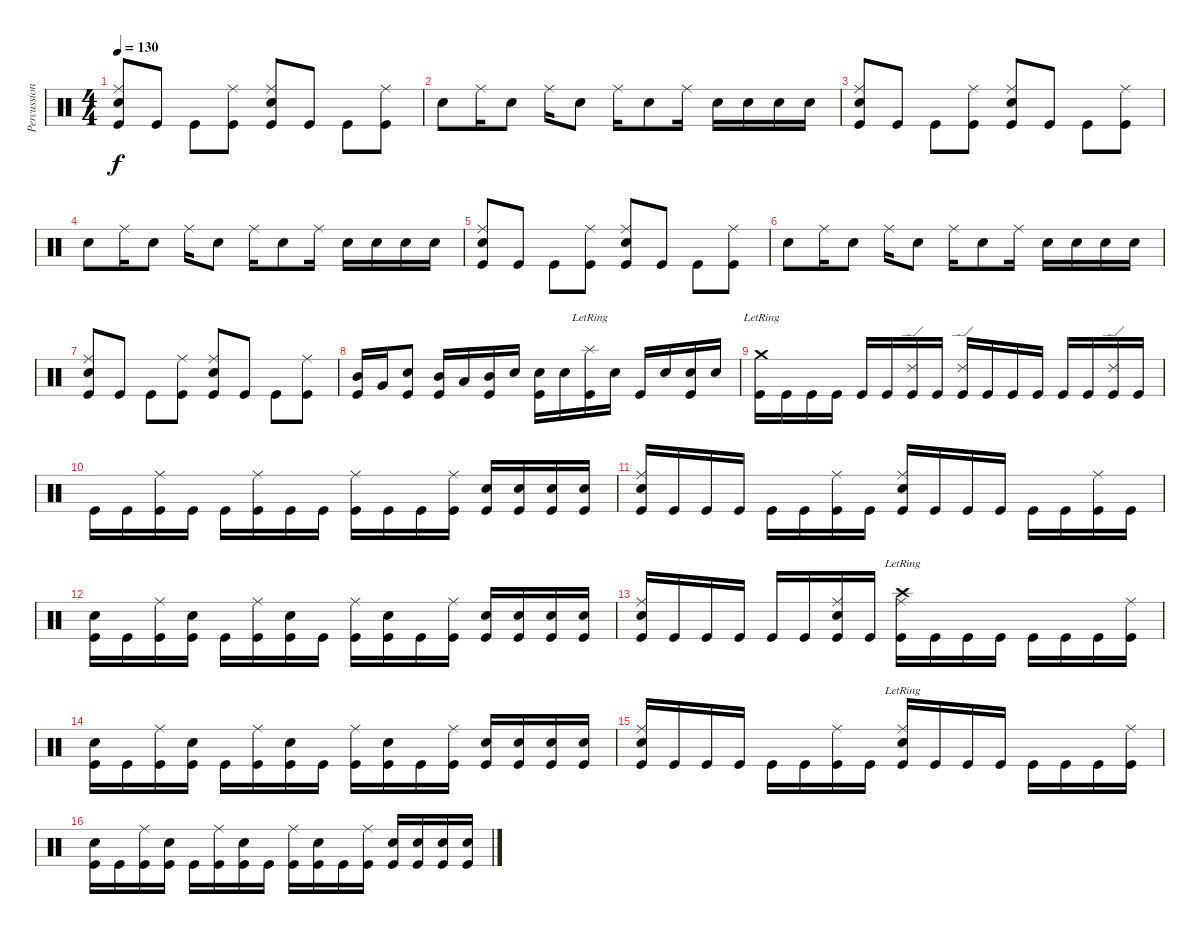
\track ("Percussions" "Percussion") {instrument percussion}
\staff {score}
\articulation defaults
\ts (4 4)
\tempo 130
\clef neutral
\ks c
("Kick (hit)" "Ride (middle)" "Electric Snare (hit)").8{dy f} "Kick (hit)".8 "Kick (hit)".8 ("Kick (hit)" "Ride (middle)").8 ("Kick (hit)" "Ride (middle)" "Electric Snare (hit)").8 "Kick (hit)".8 "Kick (hit)".8 ("Kick (hit)" "Ride (middle)").8 |
"Electric Snare (hit)".8 "Ride (middle)".16 "Electric Snare (hit)".8 "Ride (middle)".16 "Electric Snare (hit)".8 "Ride (middle)".16 "Electric Snare (hit)".8 "Ride (middle)".16 "Electric Snare (hit)".16 "Electric Snare (hit)".16 "Electric Snare (hit)".16 "Electric Snare (hit)".16 |
("Kick (hit)" "Ride (middle)" "Electric Snare (hit)").8 "Kick (hit)".8 "Kick (hit)".8 ("Kick (hit)" "Ride (middle)").8 ("Kick (hit)" "Ride (middle)" "Electric Snare (hit)").8 "Kick (hit)".8 "Kick (hit)".8 ("Kick (hit)" "Ride (middle)").8 |
"Electric Snare (hit)".8 "Ride (middle)".16 "Electric Snare (hit)".8 "Ride (middle)".16 "Electric Snare (hit)".8 "Ride (middle)".16 "Electric Snare (hit)".8 "Ride (middle)".16 "Electric Snare (hit)".16 "Electric Snare (hit)".16 "Electric Snare (hit)".16 "Electric Snare (hit)".16 |
("Kick (hit)" "Ride (middle)" "Electric Snare (hit)").8 "Kick (hit)".8 "Kick (hit)".8 ("Kick (hit)" "Ride (middle)").8 ("Kick (hit)" "Ride (middle)" "Electric Snare (hit)").8 "Kick (hit)".8 "Kick (hit)".8 ("Kick (hit)" "Ride (middle)").8 |
"Electric Snare (hit)".8 "Ride (middle)".16 "Electric Snare (hit)".8 "Ride (middle)".16 "Electric Snare (hit)".8 "Ride (middle)".16 "Electric Snare (hit)".8 "Ride (middle)".16 "Electric Snare (hit)".16 "Electric Snare (hit)".16 "Electric Snare (hit)".16 "Electric Snare (hit)".16 |
("Kick (hit)" "Ride (middle)" "Electric Snare (hit)").8 "Kick (hit)".8 "Kick (hit)".8 ("Kick (hit)" "Ride (middle)").8 ("Kick (hit)" "Ride (middle)" "Electric Snare (hit)").8 "Kick (hit)".8 "Kick (hit)".8 ("Kick (hit)" "Ride (middle)").8 |
("Kick (hit)" "Mid Tom (hit)").16 "Very Low Tom (hit)".16 ("Kick (hit)" "Electric Snare (hit)").8 ("Kick (hit)" "Mid Tom (hit)").16 "Low Tom (hit)".16 ("Kick (hit)" "Mid Tom (hit)").16 "Electric Snare (hit)".16 ("Kick (hit)" "Electric Snare (hit)").16 "Electric Snare (hit)".16 ("Kick (hit)" "Splash (hit)"{lr}).16 "Snare (hit) 2".16 "Kick (hit)".16 "Electric Snare (hit)".16 ("Kick (hit)" "Electric Snare (hit)").16 "Electric Snare (hit)".16 |
("Kick (hit)" "Crash medium (hit)"{lr}).16 "Kick (hit)".16 "Kick (hit)".16 "Kick (hit)".16 "Kick (hit)".16 "Kick (hit)".16 ("Kick (hit)" "Ride (edge) 2").16 "Kick (hit)".16 ("Kick (hit)" "Ride (edge) 2").16 "Kick (hit)".16 "Kick (hit)".16 "Kick (hit)".16 "Kick (hit)".16 "Kick (hit)".16 ("Kick (hit)" "Ride (edge) 2").16 "Kick (hit)".16 |
"Kick (hit)".16 "Kick (hit)".16 ("Kick (hit)" "Ride (middle)").16 "Kick (hit)".16 "Kick (hit)".16 ("Kick (hit)" "Ride (middle)").16 "Kick (hit)".16 "Kick (hit)".16 ("Kick (hit)" "Ride (middle)").16 "Kick (hit)".16 "Kick (hit)".16 ("Kick (hit)" "Ride (middle)").16 ("Kick (hit)" "Snare (hit) 2").16 ("Kick (hit)" "Snare (hit) 2").16 ("Kick (hit)" "Snare (hit) 2").16 ("Kick (hit)" "Snare (hit) 2").16 |
("Kick (hit)" "Ride (middle)" "Electric Snare (hit)").16 "Kick (hit)".16 "Kick (hit)".16 "Kick (hit)".16 "Kick (hit)".16 "Kick (hit)".16 ("Kick (hit)" "Ride (middle)").16 "Kick (hit)".16 ("Kick (hit)" "Ride (middle)" "Electric Snare (hit)").16 "Kick (hit)".16 "Kick (hit)".16 "Kick (hit)".16 "Kick (hit)".16 "Kick (hit)".16 ("Kick (hit)" "Ride (middle)").16 "Kick (hit)".16 |
("Electric Snare (hit)" "Kick (hit)").16 "Kick (hit)".16 ("Ride (middle)" "Kick (hit)").16 ("Electric Snare (hit)" "Kick (hit)").16 "Kick (hit)".16 ("Ride (middle)" "Kick (hit)").16 ("Electric Snare (hit)" "Kick (hit)").16 "Kick (hit)".16 ("Ride (middle)" "Kick (hit)").16 ("Electric Snare (hit)" "Kick (hit)").16 "Kick (hit)".16 ("Ride (middle)" "Kick (hit)").16 ("Electric Snare (hit)" "Kick (hit)").16 ("Electric Snare (hit)" "Kick (hit)").16 ("Electric Snare (hit)" "Kick (hit)").16 ("Electric Snare (hit)" "Kick (hit)").16 |
("Kick (hit)" "Ride (middle)" "Electric Snare (hit)").16 "Kick (hit)".16 "Kick (hit)".16 "Kick (hit)".16 "Kick (hit)".16 "Kick (hit)".16 ("Kick (hit)" "Ride (middle)" "Snare (hit) 2").16 "Kick (hit)".16 ("Kick (hit)" "Ride (middle)" "Crash high (hit)"{lr}).16 "Kick (hit)".16 "Kick (hit)".16 "Kick (hit)".16 "Kick (hit)".16 "Kick (hit)".16 "Kick (hit)".16 ("Kick (hit)" "Ride (middle)").16 |
("Electric Snare (hit)" "Kick (hit)").16 "Kick (hit)".16 ("Ride (middle)" "Kick (hit)").16 ("Electric Snare (hit)" "Kick (hit)").16 "Kick (hit)".16 ("Ride (middle)" "Kick (hit)").16 ("Electric Snare (hit)" "Kick (hit)").16 "Kick (hit)".16 ("Ride (middle)" "Kick (hit)").16 ("Electric Snare (hit)" "Kick (hit)").16 "Kick (hit)".16 ("Ride (middle)" "Kick (hit)").16 ("Snare (hit) 2" "Kick (hit)").16 ("Snare (hit) 2" "Kick (hit)").16 ("Snare (hit) 2" "Kick (hit)").16 ("Snare (hit) 2" "Kick (hit)").16 |
("Kick (hit)" "Ride (middle)" "Electric Snare (hit)").16 "Kick (hit)".16 "Kick (hit)".16 "Kick (hit)".16 "Kick (hit)".16 "Kick (hit)".16 ("Kick (hit)" "Ride (middle)").16 "Kick (hit)".16 ("Kick (hit)" "Ride (middle)" "Electric Snare (hit)"{lr}).16 "Kick (hit)".16 "Kick (hit)".16 "Kick (hit)".16 "Kick (hit)".16 "Kick (hit)".16 "Kick (hit)".16 ("Kick (hit)" "Ride (middle)").16 |
("Electric Snare (hit)" "Kick (hit)").16 "Kick (hit)".16 ("Ride (middle)" "Kick (hit)").16 ("Electric Snare (hit)" "Kick (hit)").16 "Kick (hit)".16 ("Ride (middle)" "Kick (hit)").16 ("Electric Snare (hit)" "Kick (hit)").16 "Kick (hit)".16 ("Ride (middle)" "Kick (hit)").16 ("Electric Snare (hit)" "Kick (hit)").16 "Kick (hit)".16 ("Ride (middle)" "Kick (hit)").16 ("Electric Snare (hit)" "Kick (hit)").16 ("Electric Snare (hit)" "Kick (hit)").16 ("Electric Snare (hit)" "Kick (hit)").16 ("Electric Snare (hit)" "Kick (hit)").16
